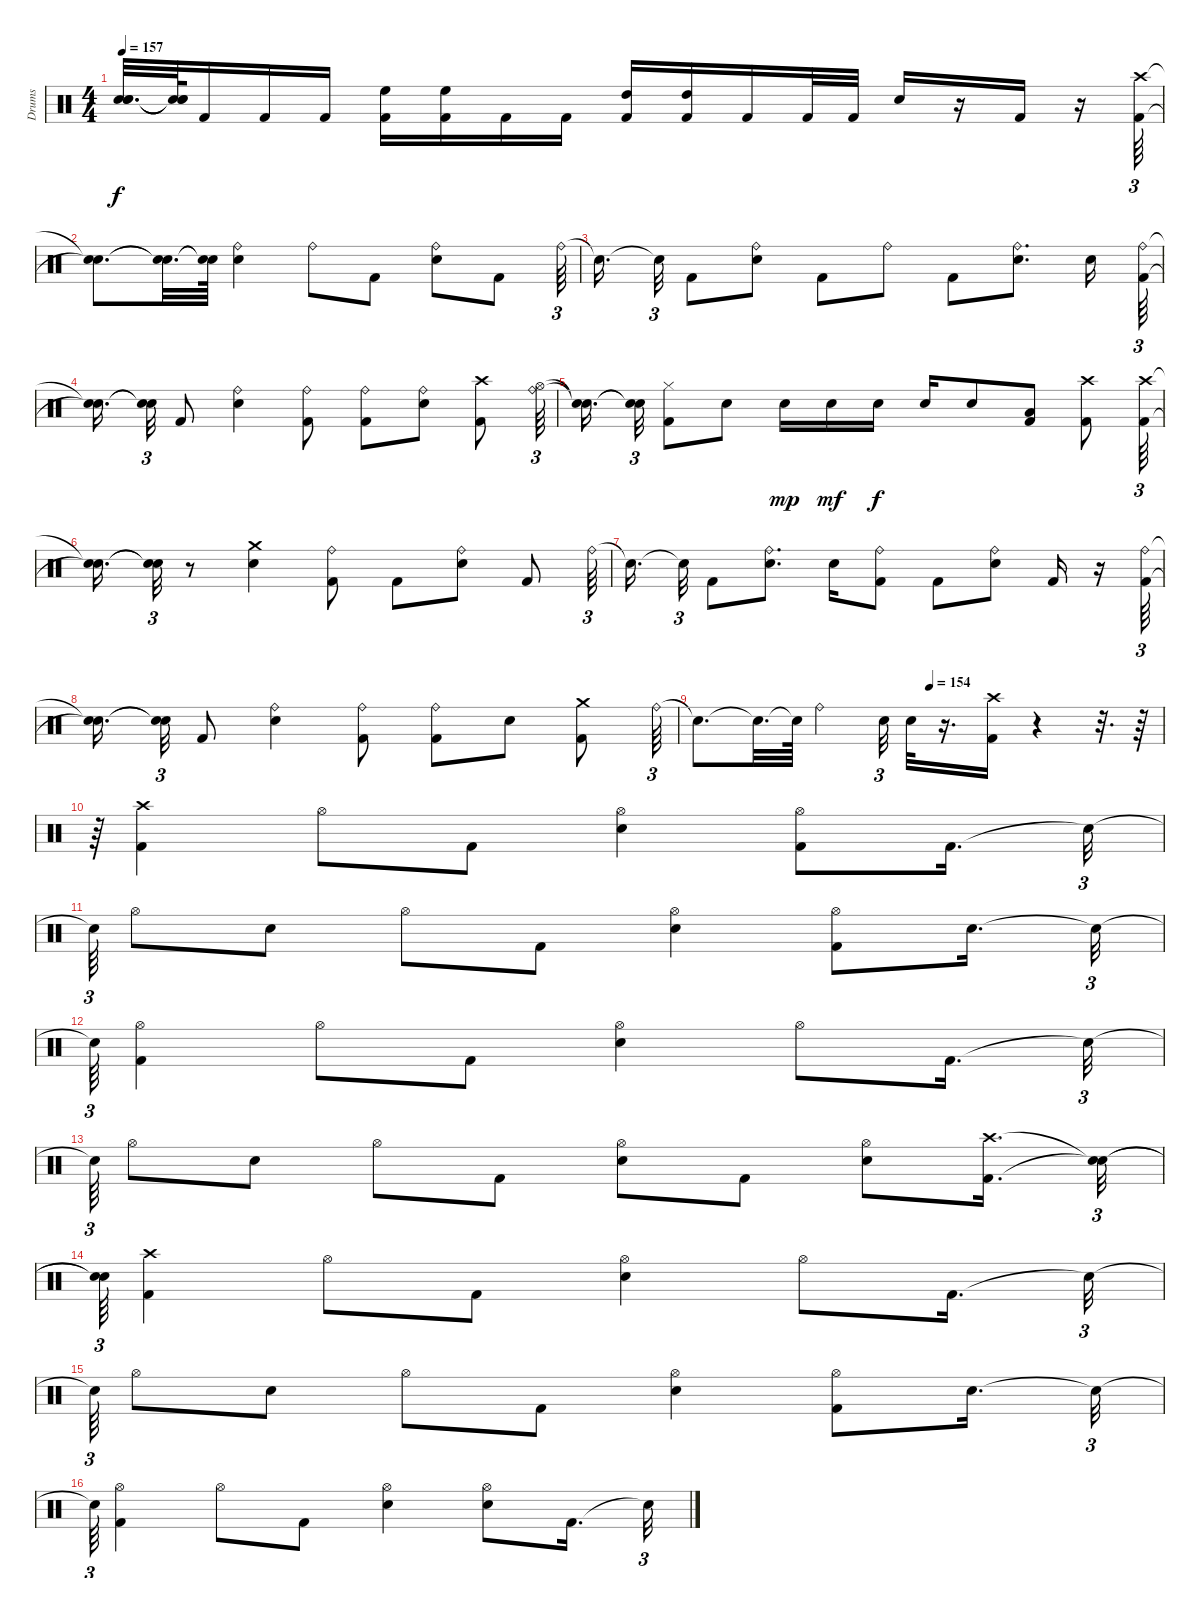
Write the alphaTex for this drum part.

\track ("Drums" "Drums") {instrument percussion}
\staff {score}
\articulation defaults
\ts (4 4)
\tempo 157
\clef neutral
\ks c
("Snare (hit)"{t} "Snare (hit)"{t} "Snare (hit)"{t}).32{d dy f} ("Snare (hit)"{t} "Snare (hit)"{t} "Snare (hit)"{t}).64 "Kick (hit) 2".16 "Kick (hit) 2".16 "Kick (hit) 2".16 ("Kick (hit) 2" "High Floor Tom (hit)").16 ("Kick (hit) 2" "High Floor Tom (hit)").16 "Kick (hit) 2".16 "Kick (hit) 2".16 ("Kick (hit) 2" "High Tom (hit)").16 ("Kick (hit) 2" "High Tom (hit)").16 "Kick (hit) 2".16 "Kick (hit) 2".32 "Kick (hit) 2".32 "Electric Snare (hit)".16 r.16 "Kick (hit) 2".16 r.16 ("Kick (hit) 2" "Crash high (hit)").64{tu (3 2)} |
("Snare (hit)"{t} "Snare (hit)"{t}).8{d} ("Snare (hit)"{t} "Snare (hit)"{t}).32{d} ("Snare (hit)"{t} "Snare (hit)"{t}).64 ("Electric Snare (hit)" "Ride (bell)").4 "Ride (bell)".8 "Kick (hit) 2".8 ("Electric Snare (hit)" "Ride (bell)").8 "Kick (hit) 2".8 "Ride (bell)".64{tu (3 2)} |
"Snare (hit)"{t}.16{d} "Snare (hit)"{t}.32{tu (3 2)} "Kick (hit) 2".8 ("Electric Snare (hit)" "Ride (bell)").8 "Kick (hit) 2".8 "Ride (bell)".8 "Kick (hit) 2".8 ("Electric Snare (hit)" "Ride (bell)").8{d} "Electric Snare (hit)".16 ("Kick (hit) 2" "Ride (bell)").64{tu (3 2)} |
("Snare (hit)"{t} "Snare (hit)"{t}).16{d} ("Snare (hit)"{t} "Snare (hit)"{t}).32{tu (3 2)} "Kick (hit) 2".8 ("Electric Snare (hit)" "Ride (bell)").4 ("Kick (hit) 2" "Ride (bell)").8 ("Kick (hit) 2" "Ride (bell)").8 ("Ride (bell)" "Electric Snare (hit)").8 ("Crash high (hit)" "Kick (hit) 2").8 ("Ride (bell)" "Hi-Hat (open)").64{tu (3 2)} |
("Snare (hit)"{t} "Snare (hit)"{t}).16{d} ("Snare (hit)"{t} "Snare (hit)"{t}).32{tu (3 2)} ("Kick (hit) 2" "Hi-Hat (closed)").8 "Electric Snare (hit)".8 "Electric Snare (hit)".16{dy mp} "Electric Snare (hit)".16{dy mf} "Electric Snare (hit)".16{dy f} "Electric Snare (hit)".16 "Electric Snare (hit)".8 ("Kick (hit) 2" "Low Tom (hit)").8 ("Kick (hit) 2" "Crash high (hit)").8 ("Kick (hit) 2" "Crash high (hit)").64{tu (3 2)} |
("Snare (hit)"{t} "Snare (hit)"{t}).16{d} ("Snare (hit)"{t} "Snare (hit)"{t}).32{tu (3 2)} r.8 ("Electric Snare (hit)" "Crash medium (hit)").4 ("Ride (bell)" "Kick (hit) 2").8 "Kick (hit) 2".8 ("Electric Snare (hit)" "Ride (bell)").8 "Kick (hit) 2".8 "Ride (bell)".64{tu (3 2)} |
"Snare (hit)"{t}.16{d} "Snare (hit)"{t}.32{tu (3 2)} "Kick (hit) 2".8 ("Electric Snare (hit)" "Ride (bell)").8{d} "Electric Snare (hit)".16 ("Ride (bell)" "Kick (hit) 2").8 "Kick (hit) 2".8 ("Electric Snare (hit)" "Ride (bell)").8 "Kick (hit) 2".16 r.16 ("Kick (hit) 2" "Ride (bell)").64{tu (3 2)} |
("Snare (hit)"{t} "Snare (hit)"{t}).16{d} ("Snare (hit)"{t} "Snare (hit)"{t}).32{tu (3 2)} "Kick (hit) 2".8 ("Electric Snare (hit)" "Ride (bell)").4 ("Kick (hit) 2" "Ride (bell)").8 ("Kick (hit) 2" "Ride (bell)").8 "Electric Snare (hit)".8 ("Kick (hit) 2" "Crash medium (hit)").8 "Ride (bell)".64{tu (3 2)} |
\tempo (154 0.5)
"Snare (hit)"{t}.8{d} "Snare (hit)"{t}.32{d} "Snare (hit)"{t}.64 "Ride (bell)".4 "Electric Snare (hit)".32{tu (3 2)} "Electric Snare (hit)".32 r.16{d} ("Kick (hit) 2" "Crash high (hit)").16 r.4 r.32{d} r.64 |
r.64{tu (3 2)} ("Crash high (hit)" "Kick (hit) 2").4 "Hi-Hat (open)".8 "Kick (hit) 2".8 ("Hi-Hat (open)" "Electric Snare (hit)").4 ("Hi-Hat (open)" "Kick (hit) 2").8 "Kick (hit) 2".16{d} "Snare (hit)"{t}.32{tu (3 2)} |
"Snare (hit)"{t}.64{tu (3 2)} "Hi-Hat (open)".8 "Electric Snare (hit)".8 "Hi-Hat (open)".8 "Kick (hit) 2".8 ("Electric Snare (hit)" "Hi-Hat (open)").4 ("Hi-Hat (open)" "Kick (hit) 2").8 "Electric Snare (hit)".16{d} "Snare (hit)"{t}.32{tu (3 2)} |
"Snare (hit)"{t}.64{tu (3 2)} ("Kick (hit) 2" "Hi-Hat (open)").4 "Hi-Hat (open)".8 "Kick (hit) 2".8 ("Hi-Hat (open)" "Electric Snare (hit)").4 "Hi-Hat (open)".8 "Kick (hit) 2".16{d} "Snare (hit)"{t}.32{tu (3 2)} |
"Snare (hit)"{t}.64{tu (3 2)} "Hi-Hat (open)".8 "Electric Snare (hit)".8 "Hi-Hat (open)".8 "Kick (hit) 2".8 ("Electric Snare (hit)" "Hi-Hat (open)").8 "Kick (hit) 2".8 ("Electric Snare (hit)" "Hi-Hat (open)").8 ("Kick (hit) 2" "Crash high (hit)").16{d} ("Snare (hit)"{t} "Snare (hit)"{t}).32{tu (3 2)} |
("Snare (hit)"{t} "Snare (hit)"{t}).64{tu (3 2)} ("Kick (hit) 2" "Crash high (hit)").4 "Hi-Hat (open)".8 "Kick (hit) 2".8 ("Electric Snare (hit)" "Hi-Hat (open)").4 "Hi-Hat (open)".8 "Kick (hit) 2".16{d} "Snare (hit)"{t}.32{tu (3 2)} |
"Snare (hit)"{t}.64{tu (3 2)} "Hi-Hat (open)".8 "Electric Snare (hit)".8 "Hi-Hat (open)".8 "Kick (hit) 2".8 ("Electric Snare (hit)" "Hi-Hat (open)").4 ("Kick (hit) 2" "Hi-Hat (open)").8 "Electric Snare (hit)".16{d} "Snare (hit)"{t}.32{tu (3 2)} |
"Snare (hit)"{t}.64{tu (3 2)} ("Kick (hit) 2" "Hi-Hat (open)").4 "Hi-Hat (open)".8 "Kick (hit) 2".8 ("Electric Snare (hit)" "Hi-Hat (open)").4 ("Electric Snare (hit)" "Hi-Hat (open)").8 "Kick (hit) 2".16{d} "Snare (hit)"{t}.32{tu (3 2)}
